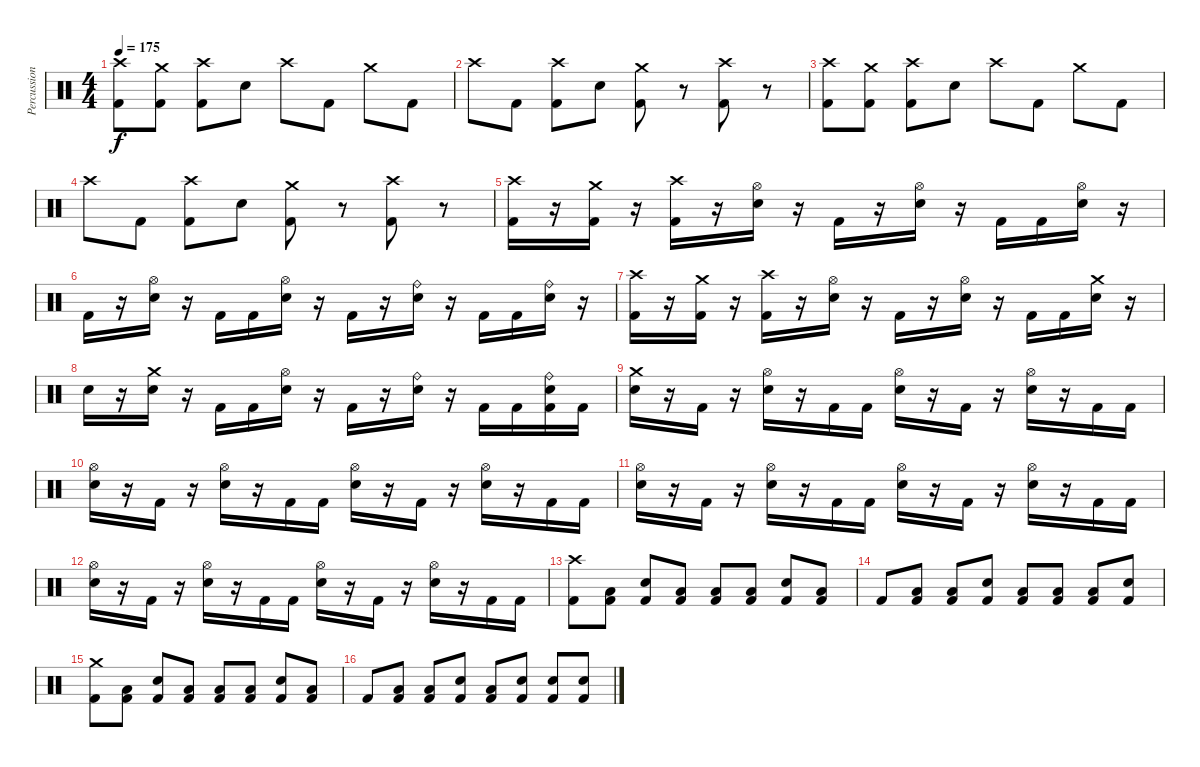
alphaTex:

\track ("Percussion" "Percussion") {instrument percussion}
\staff {score}
\articulation defaults
\ts (4 4)
\tempo 175
\clef neutral
\ks c
("Crash high (hit)" "Kick (hit) 2").8{dy f} ("Crash medium (hit)" "Kick (hit) 2").8 ("Crash high (hit)" "Kick (hit) 2").8 "Snare (hit) 2".8 "Crash high (hit)".8 "Kick (hit) 2".8 "Crash medium (hit)".8 "Kick (hit) 2".8 |
"Crash high (hit)".8 "Kick (hit) 2".8 ("Crash high (hit)" "Kick (hit) 2").8 "Snare (hit) 2".8 ("Crash medium (hit)" "Kick (hit) 2").8 r.8 ("Crash high (hit)" "Kick (hit) 2").8 r.8 |
("Crash high (hit)" "Kick (hit) 2").8 ("Crash medium (hit)" "Kick (hit) 2").8 ("Crash high (hit)" "Kick (hit) 2").8 "Snare (hit) 2".8 "Crash high (hit)".8 "Kick (hit) 2".8 "Crash medium (hit)".8 "Kick (hit) 2".8 |
"Crash high (hit)".8 "Kick (hit) 2".8 ("Crash high (hit)" "Kick (hit) 2").8 "Snare (hit) 2".8 ("Crash medium (hit)" "Kick (hit) 2").8 r.8 ("Crash high (hit)" "Kick (hit) 2").8 r.8 |
("Crash high (hit)" "Kick (hit) 2").16 r.16 ("Crash medium (hit)" "Kick (hit) 2").16 r.16 ("Crash high (hit)" "Kick (hit) 2").16 r.16 ("Hi-Hat (open)" "Snare (hit) 2").16 r.16 "Kick (hit) 2".16 r.16 ("Hi-Hat (open)" "Snare (hit) 2").16 r.16 "Kick (hit) 2".16 "Kick (hit) 2".16 ("Hi-Hat (open)" "Snare (hit) 2").16 r.16 |
"Kick (hit) 2".16 r.16 ("Hi-Hat (open)" "Snare (hit) 2").16 r.16 "Kick (hit) 2".16 "Kick (hit) 2".16 ("Hi-Hat (open)" "Snare (hit) 2").16 r.16 "Kick (hit) 2".16 r.16 ("Ride (bell)" "Snare (hit) 2").16 r.16 "Kick (hit) 2".16 "Kick (hit) 2".16 ("Ride (bell)" "Snare (hit) 2").16 r.16 |
("Crash high (hit)" "Kick (hit) 2").16 r.16 ("Crash medium (hit)" "Kick (hit) 2").16 r.16 ("Crash high (hit)" "Kick (hit) 2").16 r.16 ("Hi-Hat (open)" "Snare (hit) 2").16 r.16 "Kick (hit) 2".16 r.16 ("Hi-Hat (open)" "Snare (hit) 2").16 r.16 "Kick (hit) 2".16 "Kick (hit) 2".16 ("Crash medium (hit)" "Snare (hit) 2").16 r.16 |
"Snare (hit) 2".16 r.16 ("Crash medium (hit)" "Snare (hit) 2").16 r.16 "Kick (hit) 2".16 "Kick (hit) 2".16 ("Hi-Hat (open)" "Snare (hit) 2").16 r.16 "Kick (hit) 2".16 r.16 ("Ride (bell)" "Snare (hit) 2").16 r.16 "Kick (hit) 2".16 "Kick (hit) 2".16 ("Ride (bell)" "Snare (hit) 2" "Kick (hit) 2").16 "Kick (hit) 2".16 |
("Crash medium (hit)" "Snare (hit) 2").16 r.16 "Kick (hit) 2".16 r.16 ("Hi-Hat (open)" "Snare (hit) 2").16 r.16 "Kick (hit) 2".16 "Kick (hit) 2".16 ("Hi-Hat (open)" "Snare (hit) 2").16 r.16 "Kick (hit) 2".16 r.16 ("Hi-Hat (open)" "Snare (hit) 2").16 r.16 "Kick (hit) 2".16 "Kick (hit) 2".16 |
("Hi-Hat (open)" "Snare (hit) 2").16 r.16 "Kick (hit) 2".16 r.16 ("Hi-Hat (open)" "Snare (hit) 2").16 r.16 "Kick (hit) 2".16 "Kick (hit) 2".16 ("Hi-Hat (open)" "Snare (hit) 2").16 r.16 "Kick (hit) 2".16 r.16 ("Hi-Hat (open)" "Snare (hit) 2").16 r.16 "Kick (hit) 2".16 "Kick (hit) 2".16 |
("Hi-Hat (open)" "Snare (hit) 2").16 r.16 "Kick (hit) 2".16 r.16 ("Hi-Hat (open)" "Snare (hit) 2").16 r.16 "Kick (hit) 2".16 "Kick (hit) 2".16 ("Hi-Hat (open)" "Snare (hit) 2").16 r.16 "Kick (hit) 2".16 r.16 ("Hi-Hat (open)" "Snare (hit) 2").16 r.16 "Kick (hit) 2".16 "Kick (hit) 2".16 |
("Hi-Hat (open)" "Snare (hit) 2").16 r.16 "Kick (hit) 2".16 r.16 ("Hi-Hat (open)" "Snare (hit) 2").16 r.16 "Kick (hit) 2".16 "Kick (hit) 2".16 ("Hi-Hat (open)" "Snare (hit) 2").16 r.16 "Kick (hit) 2".16 r.16 ("Hi-Hat (open)" "Snare (hit) 2").16 r.16 "Kick (hit) 2".16 "Kick (hit) 2".16 |
("Crash high (hit)" "Kick (hit) 2").8 ("Low Floor Tom (hit)" "Kick (hit) 2").8 ("Snare (hit) 2" "Kick (hit) 2").8 ("Low Floor Tom (hit)" "Kick (hit) 2").8 ("Low Floor Tom (hit)" "Kick (hit) 2").8 ("Low Floor Tom (hit)" "Kick (hit) 2").8 ("Snare (hit) 2" "Kick (hit) 2").8 ("Low Floor Tom (hit)" "Kick (hit) 2").8 |
"Kick (hit) 2".8 ("Low Floor Tom (hit)" "Kick (hit) 2").8 ("Low Floor Tom (hit)" "Kick (hit) 2").8 ("Snare (hit) 2" "Kick (hit) 2").8 ("Low Floor Tom (hit)" "Kick (hit) 2").8 ("Low Floor Tom (hit)" "Kick (hit) 2").8 ("Low Floor Tom (hit)" "Kick (hit) 2").8 ("Snare (hit) 2" "Kick (hit) 2").8 |
("Crash medium (hit)" "Kick (hit) 2").8 ("Low Floor Tom (hit)" "Kick (hit) 2").8 ("Snare (hit) 2" "Kick (hit) 2").8 ("Low Floor Tom (hit)" "Kick (hit) 2").8 ("Low Floor Tom (hit)" "Kick (hit) 2").8 ("Low Floor Tom (hit)" "Kick (hit) 2").8 ("Snare (hit) 2" "Kick (hit) 2").8 ("Low Floor Tom (hit)" "Kick (hit) 2").8 |
"Kick (hit) 2".8 ("Low Floor Tom (hit)" "Kick (hit) 2").8 ("Low Floor Tom (hit)" "Kick (hit) 2").8 ("Snare (hit) 2" "Kick (hit) 2").8 ("Low Floor Tom (hit)" "Kick (hit) 2").8 ("Snare (hit) 2" "Kick (hit) 2").8 ("Snare (hit) 2" "Kick (hit) 2").8 ("Snare (hit) 2" "Kick (hit) 2").8
